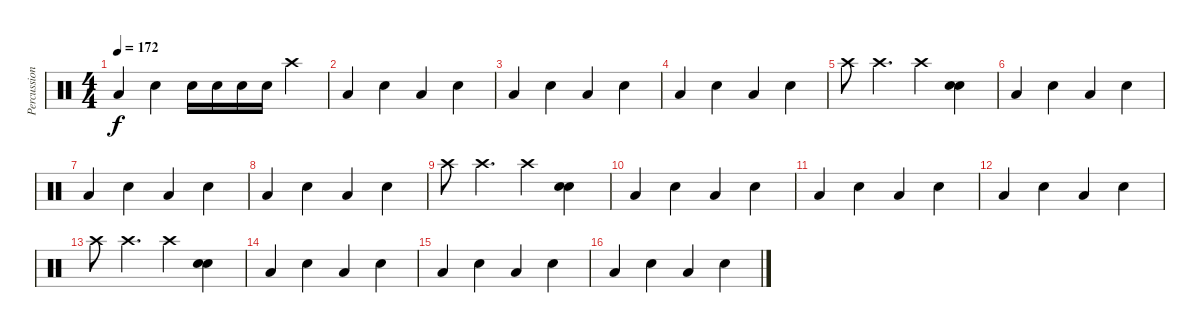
\track ("Percussion" "Percussion") {instrument percussion}
\staff {score}
\articulation defaults
\ts (4 4)
\tempo 172
\clef neutral
\ks c "Low Tom (hit)".4{dy f} "Snare (hit) 2".4 "Snare (hit) 2".16 "Snare (hit) 2".16 "Snare (hit) 2".16 "Snare (hit) 2".16 "Crash high (hit)".4
|
"Low Tom (hit)".4 "Snare (hit) 2".4 "Low Tom (hit)".4 "Snare (hit) 2".4 |
"Low Tom (hit)".4 "Snare (hit) 2".4 "Low Tom (hit)".4 "Snare (hit) 2".4 |
"Low Tom (hit)".4 "Snare (hit) 2".4 "Low Tom (hit)".4 "Snare (hit) 2".4 |
"Crash high (hit)".8 "Crash high (hit)".4{d} "Crash high (hit)".4 ("Snare (hit) 2" "Snare (hit) 2").4 |
"Low Tom (hit)".4 "Snare (hit) 2".4 "Low Tom (hit)".4 "Snare (hit) 2".4 |
"Low Tom (hit)".4 "Snare (hit) 2".4 "Low Tom (hit)".4 "Snare (hit) 2".4 |
"Low Tom (hit)".4 "Snare (hit) 2".4 "Low Tom (hit)".4 "Snare (hit) 2".4 |
"Crash high (hit)".8 "Crash high (hit)".4{d} "Crash high (hit)".4 ("Snare (hit) 2" "Snare (hit) 2").4 |
"Low Tom (hit)".4 "Snare (hit) 2".4 "Low Tom (hit)".4 "Snare (hit) 2".4 |
"Low Tom (hit)".4 "Snare (hit) 2".4 "Low Tom (hit)".4 "Snare (hit) 2".4 |
"Low Tom (hit)".4 "Snare (hit) 2".4 "Low Tom (hit)".4 "Snare (hit) 2".4 |
"Crash high (hit)".8 "Crash high (hit)".4{d} "Crash high (hit)".4 ("Snare (hit) 2" "Snare (hit) 2").4 |
"Low Tom (hit)".4 "Snare (hit) 2".4 "Low Tom (hit)".4 "Snare (hit) 2".4 |
"Low Tom (hit)".4 "Snare (hit) 2".4 "Low Tom (hit)".4 "Snare (hit) 2".4 |
"Low Tom (hit)".4 "Snare (hit) 2".4 "Low Tom (hit)".4 "Snare (hit) 2".4
